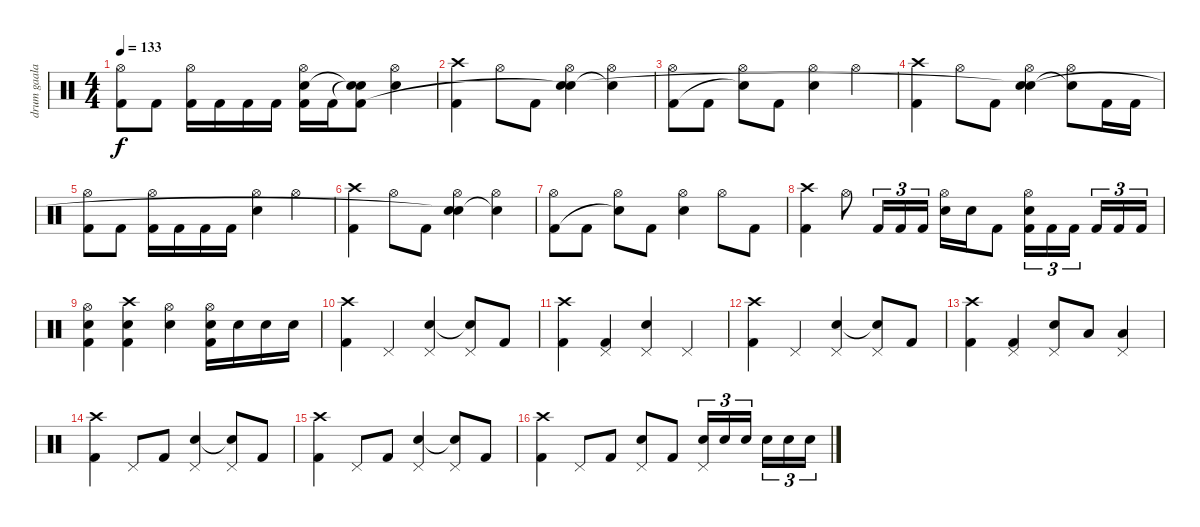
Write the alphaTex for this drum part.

\track ("drum gaalaas" "drum gaala") {instrument percussion}
\staff {score}
\articulation defaults
\ts (4 4)
\tempo 133
\clef neutral
\ks c
("Hi-Hat (open)" "Kick (hit) 2").8{dy f} "Kick (hit) 2".8 ("Hi-Hat (open)" "Kick (hit) 2").16 "Kick (hit) 2".16 "Kick (hit) 2".16 "Kick (hit) 2".16 ("Hi-Hat (open)" "Snare (hit) 2" "Kick (hit) 2").16 "Kick (hit) 2".16 ("Snare (hit)"{t} "Snare (hit)"{t} "Kick (hit) 2").8 ("Hi-Hat (open)" "Snare (hit) 2").4 |
("Crash high (hit)" "Kick (hit) 2").4 "Hi-Hat (open)".8 "Kick (hit) 2".8 ("Hi-Hat (open)" "Snare (hit) 2" "Snare (hit)"{t}).4 ("Hi-Hat (open)" "Snare (hit)"{t}).4 |
("Hi-Hat (open)" "Kick (hit) 2").8 "Kick (hit) 2".8 ("Hi-Hat (open)" "Snare (hit)"{t}).8 "Kick (hit) 2".8 ("Hi-Hat (open)" "Snare (hit) 2").4 "Hi-Hat (open)".4 |
("Crash high (hit)" "Kick (hit) 2").4 "Hi-Hat (open)".8 "Kick (hit) 2".8 ("Hi-Hat (open)" "Snare (hit) 2" "Snare (hit)"{t}).4 ("Hi-Hat (open)" "Snare (hit)"{t}).8 "Kick (hit) 2".16 "Kick (hit) 2".16 |
("Hi-Hat (open)" "Kick (hit) 2").8 "Kick (hit) 2".8 ("Hi-Hat (open)" "Kick (hit) 2").16 "Kick (hit) 2".16 "Kick (hit) 2".16 "Kick (hit) 2".16 ("Hi-Hat (open)" "Snare (hit) 2").4 "Hi-Hat (open)".4 |
("Crash high (hit)" "Kick (hit) 2").4 "Hi-Hat (open)".8 "Kick (hit) 2".8 ("Hi-Hat (open)" "Snare (hit) 2" "Snare (hit)"{t}).4 ("Hi-Hat (open)" "Snare (hit)"{t}).4 |
("Hi-Hat (open)" "Kick (hit) 2").8 "Kick (hit) 2".8 ("Hi-Hat (open)" "Snare (hit)"{t}).8 "Kick (hit) 2".8 ("Hi-Hat (open)" "Snare (hit) 2").4 "Hi-Hat (open)".8 "Kick (hit) 2".8 |
("Crash high (hit)" "Kick (hit) 2").4 "Hi-Hat (open)".8 "Kick (hit) 2".16{tu (3 2)} "Kick (hit) 2".16{tu (3 2)} "Kick (hit) 2".16{tu (3 2)} ("Hi-Hat (open)" "Snare (hit) 2").16 "Snare (hit) 2".16 "Kick (hit) 2".8 ("Hi-Hat (open)" "Snare (hit) 2" "Kick (hit) 2").16{tu (3 2)} "Kick (hit) 2".16{tu (3 2)} "Kick (hit) 2".16{tu (3 2)} "Kick (hit) 2".16{tu (3 2)} "Kick (hit) 2".16{tu (3 2)} "Kick (hit) 2".16{tu (3 2)} |
("Hi-Hat (open)" "Snare (hit) 2" "Kick (hit) 2").4 ("Crash high (hit)" "Snare (hit) 2" "Kick (hit) 2").4 ("Hi-Hat (open)" "Snare (hit) 2").4 ("Hi-Hat (open)" "Electric Snare (hit)" "Kick (hit) 2").16 "Electric Snare (hit)".16 "Snare (hit) 2".16 "Snare (hit) 2".16 |
("Crash high (hit)" "Kick (hit) 2").4 "Pedal Hi-Hat (hit)".4 ("Pedal Hi-Hat (hit)" "Snare (hit) 2").4 ("Pedal Hi-Hat (hit)" "Snare (hit)"{t}).8 "Kick (hit) 2".8 |
("Crash high (hit)" "Kick (hit) 2").4 ("Pedal Hi-Hat (hit)" "Kick (hit) 2").4 ("Pedal Hi-Hat (hit)" "Snare (hit) 2").4 "Pedal Hi-Hat (hit)".4 |
("Crash high (hit)" "Kick (hit) 2").4 "Pedal Hi-Hat (hit)".4 ("Pedal Hi-Hat (hit)" "Snare (hit) 2").4 ("Pedal Hi-Hat (hit)" "Snare (hit)"{t}).8 "Kick (hit) 2".8 |
("Crash high (hit)" "Kick (hit) 2").4 ("Pedal Hi-Hat (hit)" "Kick (hit) 2").4 ("Pedal Hi-Hat (hit)" "Snare (hit) 2").8 "Low Tom (hit)".8 ("Pedal Hi-Hat (hit)" "Low Tom (hit)").4 |
("Crash high (hit)" "Kick (hit) 2").4 "Pedal Hi-Hat (hit)".8 "Kick (hit) 2".8 ("Pedal Hi-Hat (hit)" "Snare (hit) 2").4 ("Pedal Hi-Hat (hit)" "Snare (hit)"{t}).8 "Kick (hit) 2".8 |
("Crash high (hit)" "Kick (hit) 2").4 "Pedal Hi-Hat (hit)".8 "Kick (hit) 2".8 ("Pedal Hi-Hat (hit)" "Snare (hit) 2").4 ("Pedal Hi-Hat (hit)" "Snare (hit)"{t}).8 "Kick (hit) 2".8 |
("Crash high (hit)" "Kick (hit) 2").4 "Pedal Hi-Hat (hit)".8 "Kick (hit) 2".8 ("Pedal Hi-Hat (hit)" "Snare (hit) 2").8 "Kick (hit) 2".8 ("Pedal Hi-Hat (hit)" "Snare (hit) 2").16{tu (3 2)} "Snare (hit) 2".16{tu (3 2)} "Snare (hit) 2".16{tu (3 2)} "Snare (hit) 2".16{tu (3 2)} "Snare (hit) 2".16{tu (3 2)} "Snare (hit) 2".16{tu (3 2)}
